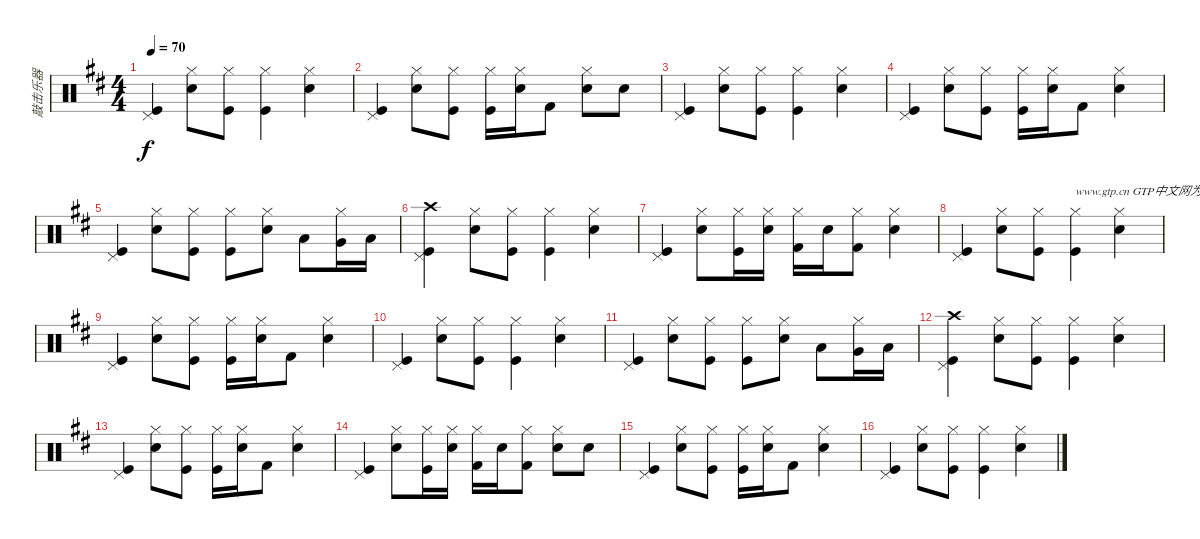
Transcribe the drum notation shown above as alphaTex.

\track ("敲击乐器" "敲击乐器") {instrument percussion}
\staff {score}
\articulation defaults
\ts (4 4)
\tempo 70
\clef neutral
\ks d
("Kick (hit)" "Pedal Hi-Hat (hit)").4{dy f} ("Snare (hit) 2" "Hi-Hat (closed)").8 ("Kick (hit)" "Hi-Hat (closed)").8 ("Kick (hit)" "Hi-Hat (closed)").4 ("Snare (hit) 2" "Hi-Hat (closed)").4 |
("Kick (hit)" "Pedal Hi-Hat (hit)").4 ("Snare (hit) 2" "Hi-Hat (closed)").8 ("Kick (hit)" "Hi-Hat (closed)").8 ("Kick (hit)" "Hi-Hat (closed)").16 ("Snare (hit) 2" "Hi-Hat (closed)").16 "Kick (hit) 2".8 ("Snare (hit) 2" "Hi-Hat (closed)").8 "Snare (hit) 2".8 |
("Kick (hit)" "Pedal Hi-Hat (hit)").4 ("Snare (hit) 2" "Hi-Hat (closed)").8 ("Kick (hit)" "Hi-Hat (closed)").8 ("Kick (hit)" "Hi-Hat (closed)").4 ("Snare (hit) 2" "Hi-Hat (closed)").4 |
("Kick (hit)" "Pedal Hi-Hat (hit)").4 ("Snare (hit) 2" "Hi-Hat (closed)").8 ("Kick (hit)" "Hi-Hat (closed)").8 ("Kick (hit)" "Hi-Hat (closed)").16 ("Snare (hit) 2" "Hi-Hat (closed)").16 "Kick (hit) 2".8 ("Snare (hit) 2" "Hi-Hat (closed)").4 |
("Kick (hit)" "Pedal Hi-Hat (hit)").4 ("Snare (hit) 2" "Hi-Hat (closed)").8 ("Kick (hit)" "Hi-Hat (closed)").8 ("Kick (hit)" "Hi-Hat (closed)").8 ("Hi-Hat (closed)" "Electric Snare (hit)").8 "Low Floor Tom (hit)".8 ("Hi-Hat (closed)" "Very Low Tom (hit)").16 "Low Tom (hit)".16 |
("Kick (hit)" "Pedal Hi-Hat (hit)" "Crash high (hit)").4 ("Snare (hit) 2" "Hi-Hat (closed)").8 ("Kick (hit)" "Hi-Hat (closed)").8 ("Kick (hit)" "Hi-Hat (closed)").4 ("Snare (hit) 2" "Hi-Hat (closed)").4 |
("Kick (hit)" "Pedal Hi-Hat (hit)").4 ("Snare (hit) 2" "Hi-Hat (closed)").8 ("Kick (hit)" "Hi-Hat (closed)").16 ("Hi-Hat (closed)" "Snare (hit) 2").16 ("Hi-Hat (closed)" "Kick (hit) 2").16 "Snare (hit) 2".16 ("Hi-Hat (closed)" "Kick (hit) 2").8 ("Snare (hit) 2" "Hi-Hat (closed)").4 |
("Kick (hit)" "Pedal Hi-Hat (hit)").4 ("Snare (hit) 2" "Hi-Hat (closed)").8 ("Kick (hit)" "Hi-Hat (closed)").8 ("Kick (hit)" "Hi-Hat (closed)").4{txt "www.gtp.cn GTP中文网为您提供优秀的谱子"} ("Snare (hit) 2" "Hi-Hat (closed)").4 |
("Kick (hit)" "Pedal Hi-Hat (hit)").4 ("Snare (hit) 2" "Hi-Hat (closed)").8 ("Kick (hit)" "Hi-Hat (closed)").8 ("Kick (hit)" "Hi-Hat (closed)").16 ("Snare (hit) 2" "Hi-Hat (closed)").16 "Kick (hit) 2".8 ("Snare (hit) 2" "Hi-Hat (closed)").4 |
("Kick (hit)" "Pedal Hi-Hat (hit)").4 ("Snare (hit) 2" "Hi-Hat (closed)").8 ("Kick (hit)" "Hi-Hat (closed)").8 ("Kick (hit)" "Hi-Hat (closed)").4 ("Snare (hit) 2" "Hi-Hat (closed)").4 |
("Kick (hit)" "Pedal Hi-Hat (hit)").4 ("Snare (hit) 2" "Hi-Hat (closed)").8 ("Kick (hit)" "Hi-Hat (closed)").8 ("Kick (hit)" "Hi-Hat (closed)").8 ("Hi-Hat (closed)" "Electric Snare (hit)").8 "Low Floor Tom (hit)".8 ("Hi-Hat (closed)" "Very Low Tom (hit)").16 "Low Tom (hit)".16 |
("Kick (hit)" "Pedal Hi-Hat (hit)" "Crash high (hit)").4 ("Snare (hit) 2" "Hi-Hat (closed)").8 ("Kick (hit)" "Hi-Hat (closed)").8 ("Kick (hit)" "Hi-Hat (closed)").4 ("Snare (hit) 2" "Hi-Hat (closed)").4 |
("Kick (hit)" "Pedal Hi-Hat (hit)").4 ("Snare (hit) 2" "Hi-Hat (closed)").8 ("Kick (hit)" "Hi-Hat (closed)").8 ("Kick (hit)" "Hi-Hat (closed)").16 ("Snare (hit) 2" "Hi-Hat (closed)").16 "Kick (hit) 2".8 ("Snare (hit) 2" "Hi-Hat (closed)").4 |
("Kick (hit)" "Pedal Hi-Hat (hit)").4 ("Snare (hit) 2" "Hi-Hat (closed)").8 ("Kick (hit)" "Hi-Hat (closed)").16 ("Hi-Hat (closed)" "Snare (hit) 2").16 ("Hi-Hat (closed)" "Kick (hit) 2").16 "Snare (hit) 2".16 ("Hi-Hat (closed)" "Kick (hit) 2").8 ("Snare (hit) 2" "Hi-Hat (closed)").8 "Snare (hit) 2".8 |
("Kick (hit)" "Pedal Hi-Hat (hit)").4 ("Snare (hit) 2" "Hi-Hat (closed)").8 ("Kick (hit)" "Hi-Hat (closed)").8 ("Kick (hit)" "Hi-Hat (closed)").16 ("Snare (hit) 2" "Hi-Hat (closed)").16 "Kick (hit) 2".8 ("Snare (hit) 2" "Hi-Hat (closed)").4 |
("Kick (hit)" "Pedal Hi-Hat (hit)").4 ("Snare (hit) 2" "Hi-Hat (closed)").8 ("Kick (hit)" "Hi-Hat (closed)").8 ("Kick (hit)" "Hi-Hat (closed)").4 ("Snare (hit) 2" "Hi-Hat (closed)").4
